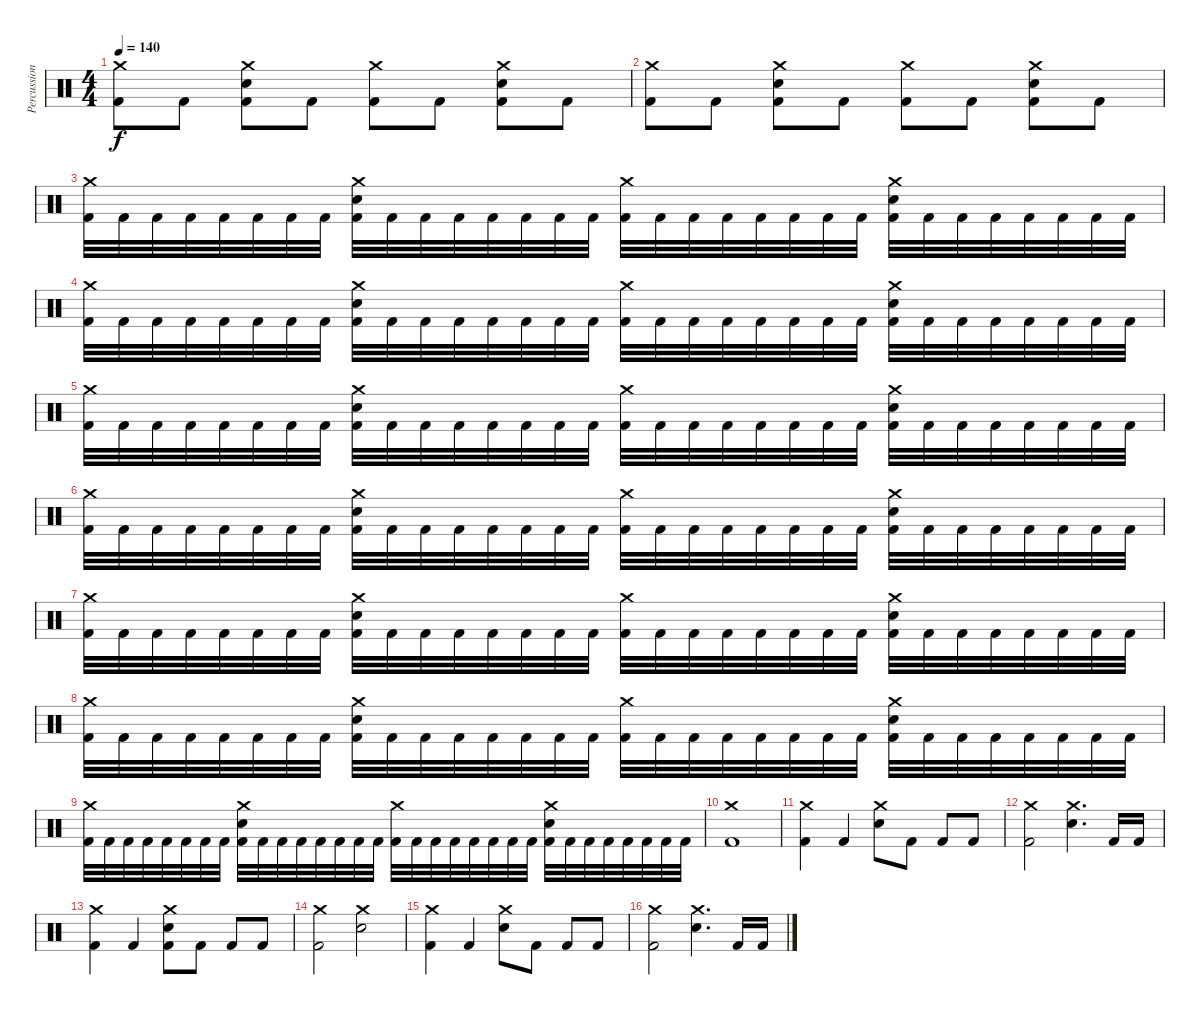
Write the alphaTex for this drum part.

\track ("Percussion" "Percussion") {instrument percussion}
\staff {score}
\articulation defaults
\ts (4 4)
\tempo 140
\clef neutral
\ks c
("Crash medium (hit)" "Kick (hit) 2").8{dy f} "Kick (hit) 2".8 ("Crash medium (hit)" "Electric Snare (hit)" "Kick (hit) 2").8 "Kick (hit) 2".8 ("Crash medium (hit)" "Kick (hit) 2").8 "Kick (hit) 2".8 ("Crash medium (hit)" "Electric Snare (hit)" "Kick (hit) 2").8 "Kick (hit) 2".8 |
("Crash medium (hit)" "Kick (hit) 2").8 "Kick (hit) 2".8 ("Crash medium (hit)" "Electric Snare (hit)" "Kick (hit) 2").8 "Kick (hit) 2".8 ("Crash medium (hit)" "Kick (hit) 2").8 "Kick (hit) 2".8 ("Crash medium (hit)" "Electric Snare (hit)" "Kick (hit) 2").8 "Kick (hit) 2".8 |
("Crash medium (hit)" "Kick (hit) 2").32 "Kick (hit) 2".32 "Kick (hit) 2".32 "Kick (hit) 2".32 "Kick (hit) 2".32 "Kick (hit) 2".32 "Kick (hit) 2".32 "Kick (hit) 2".32 ("Crash medium (hit)" "Electric Snare (hit)" "Kick (hit) 2").32 "Kick (hit) 2".32 "Kick (hit) 2".32 "Kick (hit) 2".32 "Kick (hit) 2".32 "Kick (hit) 2".32 "Kick (hit) 2".32 "Kick (hit) 2".32 ("Crash medium (hit)" "Kick (hit) 2").32 "Kick (hit) 2".32 "Kick (hit) 2".32 "Kick (hit) 2".32 "Kick (hit) 2".32 "Kick (hit) 2".32 "Kick (hit) 2".32 "Kick (hit) 2".32 ("Crash medium (hit)" "Electric Snare (hit)" "Kick (hit) 2").32 "Kick (hit) 2".32 "Kick (hit) 2".32 "Kick (hit) 2".32 "Kick (hit) 2".32 "Kick (hit) 2".32 "Kick (hit) 2".32 "Kick (hit) 2".32 |
("Crash medium (hit)" "Kick (hit) 2").32 "Kick (hit) 2".32 "Kick (hit) 2".32 "Kick (hit) 2".32 "Kick (hit) 2".32 "Kick (hit) 2".32 "Kick (hit) 2".32 "Kick (hit) 2".32 ("Crash medium (hit)" "Electric Snare (hit)" "Kick (hit) 2").32 "Kick (hit) 2".32 "Kick (hit) 2".32 "Kick (hit) 2".32 "Kick (hit) 2".32 "Kick (hit) 2".32 "Kick (hit) 2".32 "Kick (hit) 2".32 ("Crash medium (hit)" "Kick (hit) 2").32 "Kick (hit) 2".32 "Kick (hit) 2".32 "Kick (hit) 2".32 "Kick (hit) 2".32 "Kick (hit) 2".32 "Kick (hit) 2".32 "Kick (hit) 2".32 ("Crash medium (hit)" "Electric Snare (hit)" "Kick (hit) 2").32 "Kick (hit) 2".32 "Kick (hit) 2".32 "Kick (hit) 2".32 "Kick (hit) 2".32 "Kick (hit) 2".32 "Kick (hit) 2".32 "Kick (hit) 2".32 |
("Crash medium (hit)" "Kick (hit) 2").32 "Kick (hit) 2".32 "Kick (hit) 2".32 "Kick (hit) 2".32 "Kick (hit) 2".32 "Kick (hit) 2".32 "Kick (hit) 2".32 "Kick (hit) 2".32 ("Crash medium (hit)" "Electric Snare (hit)" "Kick (hit) 2").32 "Kick (hit) 2".32 "Kick (hit) 2".32 "Kick (hit) 2".32 "Kick (hit) 2".32 "Kick (hit) 2".32 "Kick (hit) 2".32 "Kick (hit) 2".32 ("Crash medium (hit)" "Kick (hit) 2").32 "Kick (hit) 2".32 "Kick (hit) 2".32 "Kick (hit) 2".32 "Kick (hit) 2".32 "Kick (hit) 2".32 "Kick (hit) 2".32 "Kick (hit) 2".32 ("Crash medium (hit)" "Electric Snare (hit)" "Kick (hit) 2").32 "Kick (hit) 2".32 "Kick (hit) 2".32 "Kick (hit) 2".32 "Kick (hit) 2".32 "Kick (hit) 2".32 "Kick (hit) 2".32 "Kick (hit) 2".32 |
("Crash medium (hit)" "Kick (hit) 2").32 "Kick (hit) 2".32 "Kick (hit) 2".32 "Kick (hit) 2".32 "Kick (hit) 2".32 "Kick (hit) 2".32 "Kick (hit) 2".32 "Kick (hit) 2".32 ("Crash medium (hit)" "Electric Snare (hit)" "Kick (hit) 2").32 "Kick (hit) 2".32 "Kick (hit) 2".32 "Kick (hit) 2".32 "Kick (hit) 2".32 "Kick (hit) 2".32 "Kick (hit) 2".32 "Kick (hit) 2".32 ("Crash medium (hit)" "Kick (hit) 2").32 "Kick (hit) 2".32 "Kick (hit) 2".32 "Kick (hit) 2".32 "Kick (hit) 2".32 "Kick (hit) 2".32 "Kick (hit) 2".32 "Kick (hit) 2".32 ("Crash medium (hit)" "Electric Snare (hit)" "Kick (hit) 2").32 "Kick (hit) 2".32 "Kick (hit) 2".32 "Kick (hit) 2".32 "Kick (hit) 2".32 "Kick (hit) 2".32 "Kick (hit) 2".32 "Kick (hit) 2".32 |
("Crash medium (hit)" "Kick (hit) 2").32 "Kick (hit) 2".32 "Kick (hit) 2".32 "Kick (hit) 2".32 "Kick (hit) 2".32 "Kick (hit) 2".32 "Kick (hit) 2".32 "Kick (hit) 2".32 ("Crash medium (hit)" "Electric Snare (hit)" "Kick (hit) 2").32 "Kick (hit) 2".32 "Kick (hit) 2".32 "Kick (hit) 2".32 "Kick (hit) 2".32 "Kick (hit) 2".32 "Kick (hit) 2".32 "Kick (hit) 2".32 ("Crash medium (hit)" "Kick (hit) 2").32 "Kick (hit) 2".32 "Kick (hit) 2".32 "Kick (hit) 2".32 "Kick (hit) 2".32 "Kick (hit) 2".32 "Kick (hit) 2".32 "Kick (hit) 2".32 ("Crash medium (hit)" "Electric Snare (hit)" "Kick (hit) 2").32 "Kick (hit) 2".32 "Kick (hit) 2".32 "Kick (hit) 2".32 "Kick (hit) 2".32 "Kick (hit) 2".32 "Kick (hit) 2".32 "Kick (hit) 2".32 |
("Crash medium (hit)" "Kick (hit) 2").32 "Kick (hit) 2".32 "Kick (hit) 2".32 "Kick (hit) 2".32 "Kick (hit) 2".32 "Kick (hit) 2".32 "Kick (hit) 2".32 "Kick (hit) 2".32 ("Crash medium (hit)" "Electric Snare (hit)" "Kick (hit) 2").32 "Kick (hit) 2".32 "Kick (hit) 2".32 "Kick (hit) 2".32 "Kick (hit) 2".32 "Kick (hit) 2".32 "Kick (hit) 2".32 "Kick (hit) 2".32 ("Crash medium (hit)" "Kick (hit) 2").32 "Kick (hit) 2".32 "Kick (hit) 2".32 "Kick (hit) 2".32 "Kick (hit) 2".32 "Kick (hit) 2".32 "Kick (hit) 2".32 "Kick (hit) 2".32 ("Crash medium (hit)" "Electric Snare (hit)" "Kick (hit) 2").32 "Kick (hit) 2".32 "Kick (hit) 2".32 "Kick (hit) 2".32 "Kick (hit) 2".32 "Kick (hit) 2".32 "Kick (hit) 2".32 "Kick (hit) 2".32 |
("Crash medium (hit)" "Kick (hit) 2").32 "Kick (hit) 2".32 "Kick (hit) 2".32 "Kick (hit) 2".32 "Kick (hit) 2".32 "Kick (hit) 2".32 "Kick (hit) 2".32 "Kick (hit) 2".32 ("Crash medium (hit)" "Electric Snare (hit)" "Kick (hit) 2").32 "Kick (hit) 2".32 "Kick (hit) 2".32 "Kick (hit) 2".32 "Kick (hit) 2".32 "Kick (hit) 2".32 "Kick (hit) 2".32 "Kick (hit) 2".32 ("Crash medium (hit)" "Kick (hit) 2").32 "Kick (hit) 2".32 "Kick (hit) 2".32 "Kick (hit) 2".32 "Kick (hit) 2".32 "Kick (hit) 2".32 "Kick (hit) 2".32 "Kick (hit) 2".32 ("Crash medium (hit)" "Electric Snare (hit)" "Kick (hit) 2").32 "Kick (hit) 2".32 "Kick (hit) 2".32 "Kick (hit) 2".32 "Kick (hit) 2".32 "Kick (hit) 2".32 "Kick (hit) 2".32 "Kick (hit) 2".32 |
("Crash medium (hit)" "Kick (hit) 2").1 |
("Crash medium (hit)" "Kick (hit) 2").4 "Kick (hit) 2".4 ("Crash medium (hit)" "Electric Snare (hit)").8 "Kick (hit) 2".8 "Kick (hit) 2".8 "Kick (hit) 2".8 |
("Crash medium (hit)" "Kick (hit) 2").2 ("Crash medium (hit)" "Electric Snare (hit)").4{d} "Kick (hit) 2".16 "Kick (hit) 2".16 |
("Crash medium (hit)" "Kick (hit) 2").4 "Kick (hit) 2".4 ("Crash medium (hit)" "Electric Snare (hit)" "Kick (hit) 2").8 "Kick (hit) 2".8 "Kick (hit) 2".8 "Kick (hit) 2".8 |
("Crash medium (hit)" "Kick (hit) 2").2 ("Crash medium (hit)" "Electric Snare (hit)").2 |
("Crash medium (hit)" "Kick (hit) 2").4 "Kick (hit) 2".4 ("Crash medium (hit)" "Electric Snare (hit)").8 "Kick (hit) 2".8 "Kick (hit) 2".8 "Kick (hit) 2".8 |
("Crash medium (hit)" "Kick (hit) 2").2 ("Crash medium (hit)" "Electric Snare (hit)").4{d} "Kick (hit) 2".16 "Kick (hit) 2".16
